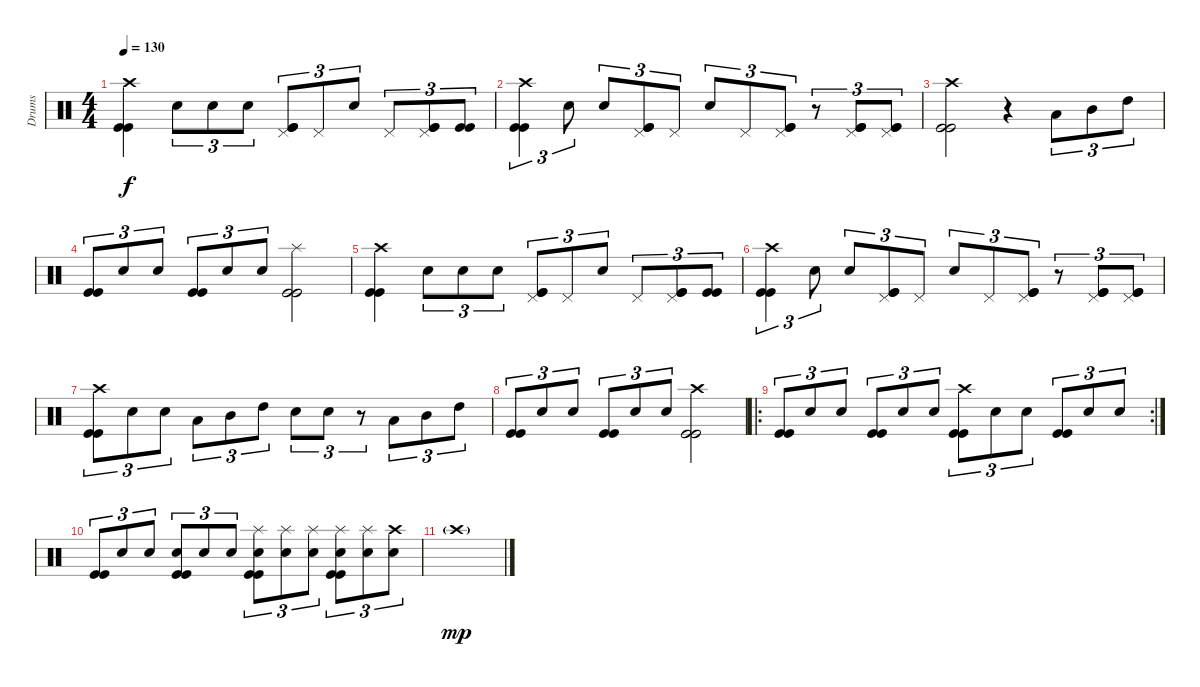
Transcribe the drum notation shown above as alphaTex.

\track ("Drums" "Drums") {instrument percussion}
\staff {score}
\articulation defaults
\ts (4 4)
\tempo 130
\clef neutral
\ks c
("Crash high (hit)" "Kick (hit)" "Kick (hit)").4{dy f} "Snare (hit) 2".8{tu (3 2)} "Snare (hit) 2".8{tu (3 2)} "Snare (hit) 2".8{tu (3 2)} ("Pedal Hi-Hat (hit)" "Kick (hit)" "Kick (hit)").8{tu (3 2)} "Pedal Hi-Hat (hit)".8{tu (3 2)} "Snare (hit) 2".8{tu (3 2)} "Pedal Hi-Hat (hit)".8{tu (3 2)} ("Pedal Hi-Hat (hit)" "Kick (hit)" "Kick (hit)").8{tu (3 2)} ("Kick (hit)" "Kick (hit)").8{tu (3 2)} |
("Crash high (hit)" "Kick (hit)" "Kick (hit)").4{tu (3 2)} "Snare (hit) 2".8{tu (3 2)} "Snare (hit) 2".8{tu (3 2)} ("Pedal Hi-Hat (hit)" "Kick (hit)" "Kick (hit)").8{tu (3 2)} "Pedal Hi-Hat (hit)".8{tu (3 2)} "Snare (hit) 2".8{tu (3 2)} "Pedal Hi-Hat (hit)".8{tu (3 2)} ("Pedal Hi-Hat (hit)" "Kick (hit)" "Kick (hit)").8{tu (3 2)} r.8{tu (3 2)} ("Pedal Hi-Hat (hit)" "Kick (hit)" "Kick (hit)").8{tu (3 2)} ("Pedal Hi-Hat (hit)" "Kick (hit)" "Kick (hit)").8{tu (3 2)} |
("Crash high (hit)" "Kick (hit)" "Kick (hit)").2 r.4 "Low Tom (hit)".8{tu (3 2)} "Mid Tom (hit)".8{tu (3 2)} "High Tom (hit)".8{tu (3 2)} |
("Kick (hit)" "Kick (hit)").8{tu (3 2)} "Snare (hit) 2".8{tu (3 2)} "Snare (hit) 2".8{tu (3 2)} ("Kick (hit)" "Kick (hit)").8{tu (3 2)} "Snare (hit) 2".8{tu (3 2)} "Snare (hit) 2".8{tu (3 2)} ("Splash (hit)" "Kick (hit)" "Kick (hit)").2 |
("Crash high (hit)" "Kick (hit)" "Kick (hit)").4 "Snare (hit) 2".8{tu (3 2)} "Snare (hit) 2".8{tu (3 2)} "Snare (hit) 2".8{tu (3 2)} ("Pedal Hi-Hat (hit)" "Kick (hit)" "Kick (hit)").8{tu (3 2)} "Pedal Hi-Hat (hit)".8{tu (3 2)} "Snare (hit) 2".8{tu (3 2)} "Pedal Hi-Hat (hit)".8{tu (3 2)} ("Pedal Hi-Hat (hit)" "Kick (hit)" "Kick (hit)").8{tu (3 2)} ("Kick (hit)" "Kick (hit)").8{tu (3 2)} |
("Crash high (hit)" "Kick (hit)" "Kick (hit)").4{tu (3 2)} "Snare (hit) 2".8{tu (3 2)} "Snare (hit) 2".8{tu (3 2)} ("Pedal Hi-Hat (hit)" "Kick (hit)" "Kick (hit)").8{tu (3 2)} "Pedal Hi-Hat (hit)".8{tu (3 2)} "Snare (hit) 2".8{tu (3 2)} "Pedal Hi-Hat (hit)".8{tu (3 2)} ("Pedal Hi-Hat (hit)" "Kick (hit)" "Kick (hit)").8{tu (3 2)} r.8{tu (3 2)} ("Pedal Hi-Hat (hit)" "Kick (hit)" "Kick (hit)").8{tu (3 2)} ("Pedal Hi-Hat (hit)" "Kick (hit)" "Kick (hit)").8{tu (3 2)} |
("Crash high (hit)" "Kick (hit)" "Kick (hit)").8{tu (3 2)} "Snare (hit) 2".8{tu (3 2)} "Snare (hit) 2".8{tu (3 2)} "Low Tom (hit)".8{tu (3 2)} "Mid Tom (hit)".8{tu (3 2)} "High Tom (hit)".8{tu (3 2)} "Snare (hit) 2".8{tu (3 2)} "Snare (hit) 2".8{tu (3 2)} r.8{tu (3 2)} "Low Tom (hit)".8{tu (3 2)} "Mid Tom (hit)".8{tu (3 2)} "High Tom (hit)".8{tu (3 2)} |
("Kick (hit)" "Kick (hit)").8{tu (3 2)} "Snare (hit) 2".8{tu (3 2)} "Snare (hit) 2".8{tu (3 2)} ("Kick (hit)" "Kick (hit)").8{tu (3 2)} "Snare (hit) 2".8{tu (3 2)} "Snare (hit) 2".8{tu (3 2)} ("Crash high (hit)" "Kick (hit)" "Kick (hit)").2 |
\ro
\rc 2
("Kick (hit)" "Kick (hit)").8{tu (3 2)} "Snare (hit) 2".8{tu (3 2)} "Snare (hit) 2".8{tu (3 2)} ("Kick (hit)" "Kick (hit)").8{tu (3 2)} "Snare (hit) 2".8{tu (3 2)} "Snare (hit) 2".8{tu (3 2)} ("Crash high (hit)" "Kick (hit)" "Kick (hit)").8{tu (3 2)} "Snare (hit) 2".8{tu (3 2)} "Snare (hit) 2".8{tu (3 2)} ("Kick (hit)" "Kick (hit)").8{tu (3 2)} "Snare (hit) 2".8{tu (3 2)} "Snare (hit) 2".8{tu (3 2)} |
("Kick (hit)" "Kick (hit)").8{tu (3 2)} "Snare (hit) 2".8{tu (3 2)} "Snare (hit) 2".8{tu (3 2)} ("Snare (hit) 2" "Kick (hit)" "Kick (hit)").8{tu (3 2)} "Snare (hit) 2".8{tu (3 2)} "Snare (hit) 2".8{tu (3 2)} ("Splash (hit)" "Snare (hit) 2" "Kick (hit)" "Kick (hit)").8{tu (3 2)} ("Splash (hit)" "Snare (hit) 2").8{tu (3 2)} ("Splash (hit)" "Snare (hit) 2").8{tu (3 2)} ("Splash (hit)" "Snare (hit) 2" "Kick (hit)" "Kick (hit)").8{tu (3 2)} ("Splash (hit)" "Snare (hit) 2").8{tu (3 2)} ("Crash high (hit)" "Snare (hit) 2").8{tu (3 2)} |
"Crash high (hit)"{g}.1{dy mp}
